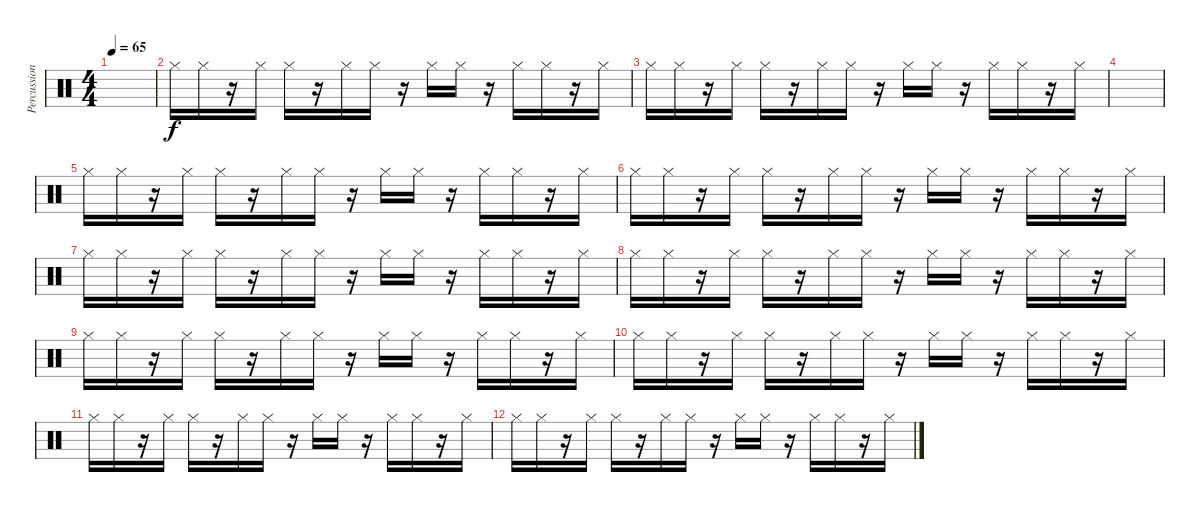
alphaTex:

\track ("Percussions" "Percussion") {instrument percussion}
\staff {score}
\articulation defaults
\ts (4 4)
\tempo 65
\clef neutral
\ks c
|
"Hi-Hat (closed)".16{volume 12 balance 0} "Hi-Hat (closed)".16 r.16{balance 2} "Hi-Hat (closed)".16 "Hi-Hat (closed)".16 r.16{balance 4} "Hi-Hat (closed)".16 "Hi-Hat (closed)".16 r.16{balance 6} "Hi-Hat (closed)".16 "Hi-Hat (closed)".16 r.16{volume 12 balance 8} "Hi-Hat (closed)".16 "Hi-Hat (closed)".16 r.16{balance 10} "Hi-Hat (closed)".16 |
"Hi-Hat (closed)".16{volume 12 balance 12} "Hi-Hat (closed)".16 r.16{balance 14} "Hi-Hat (closed)".16 "Hi-Hat (closed)".16 r.16{balance 16} "Hi-Hat (closed)".16 "Hi-Hat (closed)".16 r.16{balance 6} "Hi-Hat (closed)".16 "Hi-Hat (closed)".16 r.16{volume 12 balance 8} "Hi-Hat (closed)".16 "Hi-Hat (closed)".16 r.16{balance 10} "Hi-Hat (closed)".16 |
|
"Hi-Hat (closed)".16{volume 12 balance 12} "Hi-Hat (closed)".16 r.16{balance 14} "Hi-Hat (closed)".16 "Hi-Hat (closed)".16 r.16{balance 16} "Hi-Hat (closed)".16 "Hi-Hat (closed)".16 r.16{balance 6} "Hi-Hat (closed)".16 "Hi-Hat (closed)".16 r.16{volume 12 balance 8} "Hi-Hat (closed)".16 "Hi-Hat (closed)".16 r.16{balance 10} "Hi-Hat (closed)".16 |
"Hi-Hat (closed)".16{volume 12 balance 0} "Hi-Hat (closed)".16 r.16{balance 2} "Hi-Hat (closed)".16 "Hi-Hat (closed)".16 r.16{balance 4} "Hi-Hat (closed)".16 "Hi-Hat (closed)".16 r.16{balance 6} "Hi-Hat (closed)".16 "Hi-Hat (closed)".16 r.16{volume 12 balance 8} "Hi-Hat (closed)".16 "Hi-Hat (closed)".16 r.16{balance 10} "Hi-Hat (closed)".16 |
"Hi-Hat (closed)".16{volume 12 balance 12} "Hi-Hat (closed)".16 r.16{balance 14} "Hi-Hat (closed)".16 "Hi-Hat (closed)".16 r.16{balance 16} "Hi-Hat (closed)".16 "Hi-Hat (closed)".16 r.16{balance 6} "Hi-Hat (closed)".16 "Hi-Hat (closed)".16 r.16{volume 12 balance 8} "Hi-Hat (closed)".16 "Hi-Hat (closed)".16 r.16{balance 10} "Hi-Hat (closed)".16 |
"Hi-Hat (closed)".16{volume 12 balance 0} "Hi-Hat (closed)".16 r.16{balance 2} "Hi-Hat (closed)".16 "Hi-Hat (closed)".16 r.16{balance 4} "Hi-Hat (closed)".16 "Hi-Hat (closed)".16 r.16{balance 6} "Hi-Hat (closed)".16 "Hi-Hat (closed)".16 r.16{volume 12 balance 8} "Hi-Hat (closed)".16 "Hi-Hat (closed)".16 r.16{balance 10} "Hi-Hat (closed)".16 |
"Hi-Hat (closed)".16{volume 12 balance 12} "Hi-Hat (closed)".16 r.16{balance 14} "Hi-Hat (closed)".16 "Hi-Hat (closed)".16 r.16{balance 16} "Hi-Hat (closed)".16 "Hi-Hat (closed)".16 r.16{balance 6} "Hi-Hat (closed)".16 "Hi-Hat (closed)".16 r.16{volume 12 balance 8} "Hi-Hat (closed)".16 "Hi-Hat (closed)".16 r.16{balance 10} "Hi-Hat (closed)".16 |
"Hi-Hat (closed)".16{volume 12 balance 0} "Hi-Hat (closed)".16 r.16{balance 2} "Hi-Hat (closed)".16 "Hi-Hat (closed)".16 r.16{balance 4} "Hi-Hat (closed)".16 "Hi-Hat (closed)".16 r.16{balance 6} "Hi-Hat (closed)".16 "Hi-Hat (closed)".16 r.16{volume 12 balance 8} "Hi-Hat (closed)".16 "Hi-Hat (closed)".16 r.16{balance 10} "Hi-Hat (closed)".16 |
"Hi-Hat (closed)".16{volume 12 balance 12} "Hi-Hat (closed)".16 r.16{balance 14} "Hi-Hat (closed)".16 "Hi-Hat (closed)".16 r.16{balance 16} "Hi-Hat (closed)".16 "Hi-Hat (closed)".16 r.16{balance 6} "Hi-Hat (closed)".16 "Hi-Hat (closed)".16 r.16{volume 12 balance 8} "Hi-Hat (closed)".16 "Hi-Hat (closed)".16 r.16{balance 10} "Hi-Hat (closed)".16 |
"Hi-Hat (closed)".16{volume 12 balance 0} "Hi-Hat (closed)".16 r.16{balance 2} "Hi-Hat (closed)".16 "Hi-Hat (closed)".16 r.16{balance 4} "Hi-Hat (closed)".16 "Hi-Hat (closed)".16 r.16{balance 6} "Hi-Hat (closed)".16 "Hi-Hat (closed)".16 r.16{volume 12 balance 8} "Hi-Hat (closed)".16 "Hi-Hat (closed)".16 r.16{balance 10} "Hi-Hat (closed)".16
